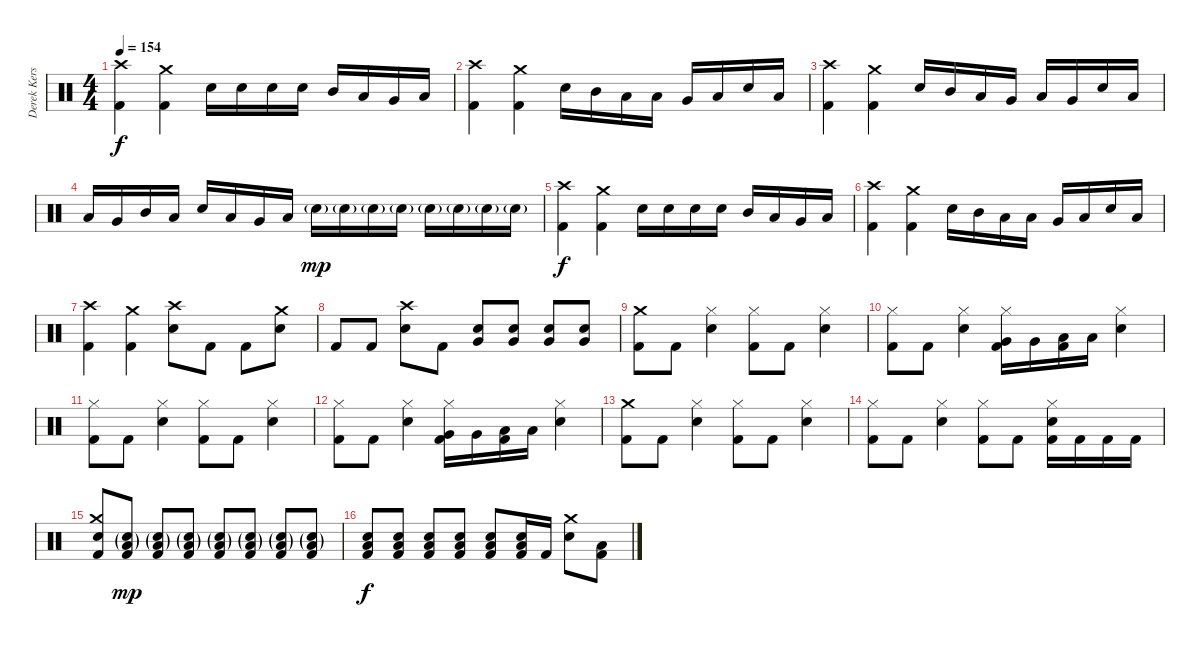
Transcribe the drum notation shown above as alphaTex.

\track ("Derek Kerswill" "Derek Kers") {instrument percussion}
\staff {score}
\articulation defaults
\ts (4 4)
\tempo 154
\clef neutral
\ks c
("Crash high (hit)" "Kick (hit) 2").4{dy f} ("Crash medium (hit)" "Kick (hit) 2").4 "Electric Snare (hit)".16 "Electric Snare (hit)".16 "Electric Snare (hit)".16 "Electric Snare (hit)".16 "Mid Tom (hit)".16 "Low Tom (hit)".16 "Very Low Tom (hit)".16 "Low Floor Tom (hit)".16 |
("Crash high (hit)" "Kick (hit) 2").4 ("Crash medium (hit)" "Kick (hit) 2").4 "Electric Snare (hit)".16 "Mid Tom (hit)".16 "Low Tom (hit)".16 "Low Tom (hit)".16 "Very Low Tom (hit)".16 "Low Floor Tom (hit)".16 "Electric Snare (hit)".16 "Low Floor Tom (hit)".16 |
("Crash high (hit)" "Kick (hit) 2").4 ("Crash medium (hit)" "Kick (hit) 2").4 "Electric Snare (hit)".16 "Mid Tom (hit)".16 "Low Tom (hit)".16 "Very Low Tom (hit)".16 "Low Floor Tom (hit)".16 "Very Low Tom (hit)".16 "Electric Snare (hit)".16 "Low Floor Tom (hit)".16 |
"Low Tom (hit)".16 "Very Low Tom (hit)".16 "Mid Tom (hit)".16 "Low Tom (hit)".16 "Electric Snare (hit)".16 "Low Floor Tom (hit)".16 "Very Low Tom (hit)".16 "Low Floor Tom (hit)".16 "Electric Snare (hit)"{g}.16{dy mp} "Electric Snare (hit)"{g}.16 "Electric Snare (hit)"{g}.16 "Electric Snare (hit)"{g}.16 "Electric Snare (hit)"{g}.16 "Electric Snare (hit)"{g}.16 "Electric Snare (hit)"{g}.16 "Electric Snare (hit)"{g}.16 |
("Crash high (hit)" "Kick (hit) 2").4{dy f} ("Crash medium (hit)" "Kick (hit) 2").4 "Electric Snare (hit)".16 "Electric Snare (hit)".16 "Electric Snare (hit)".16 "Electric Snare (hit)".16 "Mid Tom (hit)".16 "Low Tom (hit)".16 "Very Low Tom (hit)".16 "Low Floor Tom (hit)".16 |
("Crash high (hit)" "Kick (hit) 2").4 ("Crash medium (hit)" "Kick (hit) 2").4 "Electric Snare (hit)".16 "Mid Tom (hit)".16 "Low Tom (hit)".16 "Low Tom (hit)".16 "Very Low Tom (hit)".16 "Low Floor Tom (hit)".16 "Electric Snare (hit)".16 "Low Floor Tom (hit)".16 |
("Crash high (hit)" "Kick (hit) 2").4 ("Crash medium (hit)" "Kick (hit) 2").4 ("Crash high (hit)" "Electric Snare (hit)").8 "Kick (hit) 2".8 "Kick (hit) 2".8 ("Crash medium (hit)" "Electric Snare (hit)").8 |
"Kick (hit) 2".8 "Kick (hit) 2".8 ("Crash high (hit)" "Electric Snare (hit)").8 "Kick (hit) 2".8 ("Electric Snare (hit)" "Very Low Tom (hit)").8 ("Electric Snare (hit)" "Very Low Tom (hit)").8 ("Electric Snare (hit)" "Very Low Tom (hit)").8 ("Electric Snare (hit)" "Very Low Tom (hit)").8 |
("Crash medium (hit)" "Kick (hit) 2").8 "Kick (hit) 2".8 ("Hi-Hat (closed)" "Electric Snare (hit)").4 ("Hi-Hat (closed)" "Kick (hit) 2").8 "Kick (hit) 2".8 ("Hi-Hat (closed)" "Electric Snare (hit)").4 |
("Hi-Hat (closed)" "Kick (hit) 2").8 "Kick (hit) 2".8 ("Hi-Hat (closed)" "Electric Snare (hit)").4 ("Hi-Hat (closed)" "Very Low Tom (hit)" "Kick (hit) 2").16 "Very Low Tom (hit)".16 ("Low Floor Tom (hit)" "Kick (hit) 2").16 "Low Floor Tom (hit)".16 ("Hi-Hat (closed)" "Electric Snare (hit)").4 |
("Hi-Hat (closed)" "Kick (hit) 2").8 "Kick (hit) 2".8 ("Hi-Hat (closed)" "Electric Snare (hit)").4 ("Hi-Hat (closed)" "Kick (hit) 2").8 "Kick (hit) 2".8 ("Hi-Hat (closed)" "Electric Snare (hit)").4 |
("Hi-Hat (closed)" "Kick (hit) 2").8 "Kick (hit) 2".8 ("Hi-Hat (closed)" "Electric Snare (hit)").4 ("Hi-Hat (closed)" "Very Low Tom (hit)" "Kick (hit) 2").16 "Very Low Tom (hit)".16 ("Low Floor Tom (hit)" "Kick (hit) 2").16 "Low Floor Tom (hit)".16 ("Hi-Hat (closed)" "Electric Snare (hit)").4 |
("Crash medium (hit)" "Kick (hit) 2").8 "Kick (hit) 2".8 ("Hi-Hat (closed)" "Electric Snare (hit)").4 ("Hi-Hat (closed)" "Kick (hit) 2").8 "Kick (hit) 2".8 ("Hi-Hat (closed)" "Electric Snare (hit)").4 |
("Hi-Hat (closed)" "Kick (hit) 2").8 "Kick (hit) 2".8 ("Hi-Hat (closed)" "Electric Snare (hit)").4 ("Hi-Hat (closed)" "Kick (hit) 2").8 "Kick (hit) 2".8 ("Hi-Hat (closed)" "Electric Snare (hit)" "Kick (hit) 2").16 "Kick (hit) 2".16 "Kick (hit) 2".16 "Kick (hit) 2".16 |
("Crash medium (hit)" "Electric Snare (hit)" "Kick (hit) 2").8 ("Electric Snare (hit)"{g} "Low Floor Tom (hit)"{g} "Kick (hit) 2").8{dy mp} ("Electric Snare (hit)"{g} "Low Floor Tom (hit)"{g} "Kick (hit) 2").8 ("Electric Snare (hit)"{g} "Low Floor Tom (hit)"{g} "Kick (hit) 2").8 ("Electric Snare (hit)"{g} "Low Floor Tom (hit)"{g} "Kick (hit) 2").8 ("Electric Snare (hit)"{g} "Low Floor Tom (hit)"{g} "Kick (hit) 2").8 ("Electric Snare (hit)"{g} "Low Floor Tom (hit)"{g} "Kick (hit) 2").8 ("Electric Snare (hit)"{g} "Low Floor Tom (hit)"{g} "Kick (hit) 2").8 |
("Electric Snare (hit)" "Low Floor Tom (hit)" "Kick (hit) 2").8{dy f} ("Electric Snare (hit)" "Low Floor Tom (hit)" "Kick (hit) 2").8 ("Electric Snare (hit)" "Low Floor Tom (hit)" "Kick (hit) 2").8 ("Electric Snare (hit)" "Low Floor Tom (hit)" "Kick (hit) 2").8 ("Electric Snare (hit)" "Low Floor Tom (hit)" "Kick (hit) 2").8 ("Electric Snare (hit)" "Low Floor Tom (hit)" "Kick (hit) 2").16 "Kick (hit) 2".16 ("Crash medium (hit)" "Electric Snare (hit)").8 ("Low Floor Tom (hit)" "Kick (hit) 2").8
